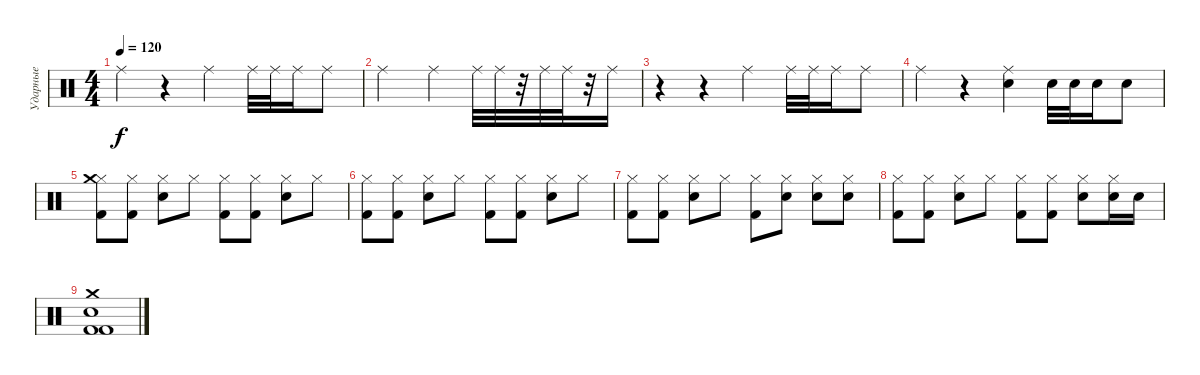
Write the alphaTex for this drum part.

\track ("Ударные" "Ударные") {instrument percussion}
\staff {score}
\articulation defaults
\ts (4 4)
\tempo 120
\clef neutral
\ks c "Ride (middle)".4{dy f}
r.4 "Ride (middle)".4 "Ride (middle)".32 "Ride (middle)".32 "Ride (middle)".16 "Ride (middle)".8 |
"Ride (middle)".2 "Ride (middle)".4 "Ride (middle)".32 "Ride (middle)".32 r.32 "Ride (middle)".32 "Ride (middle)".32 r.32 "Ride (middle)".16 |
r.4 r.4 "Ride (middle)".4 "Ride (middle)".32 "Ride (middle)".32 "Ride (middle)".16 "Ride (middle)".8 |
"Ride (middle)".4 r.4 ("Ride (middle)" "Electric Snare (hit)").4 "Electric Snare (hit)".32 "Electric Snare (hit)".32 "Electric Snare (hit)".16 "Electric Snare (hit)".8 |
("Hi-Hat (closed)" "Crash medium (hit)" "Kick (hit) 2").8 ("Hi-Hat (closed)" "Kick (hit) 2").8 ("Hi-Hat (closed)" "Electric Snare (hit)").8 "Hi-Hat (closed)".8 ("Hi-Hat (closed)" "Kick (hit) 2").8 ("Hi-Hat (closed)" "Kick (hit) 2").8 ("Hi-Hat (closed)" "Electric Snare (hit)").8 "Hi-Hat (closed)".8 |
("Hi-Hat (closed)" "Kick (hit) 2").8 ("Hi-Hat (closed)" "Kick (hit) 2").8 ("Hi-Hat (closed)" "Electric Snare (hit)").8 "Hi-Hat (closed)".8 ("Hi-Hat (closed)" "Kick (hit) 2").8 ("Hi-Hat (closed)" "Kick (hit) 2").8 ("Hi-Hat (closed)" "Electric Snare (hit)").8 "Hi-Hat (closed)".8 |
("Hi-Hat (closed)" "Kick (hit) 2").8 ("Hi-Hat (closed)" "Kick (hit) 2").8 ("Hi-Hat (closed)" "Electric Snare (hit)").8 "Hi-Hat (closed)".8 ("Hi-Hat (closed)" "Kick (hit) 2").8 ("Hi-Hat (closed)" "Electric Snare (hit)").8 ("Hi-Hat (closed)" "Electric Snare (hit)").8 ("Hi-Hat (closed)" "Electric Snare (hit)").8 |
("Hi-Hat (closed)" "Kick (hit) 2").8 ("Hi-Hat (closed)" "Kick (hit) 2").8 ("Hi-Hat (closed)" "Electric Snare (hit)").8 "Hi-Hat (closed)".8 ("Hi-Hat (closed)" "Kick (hit) 2").8 ("Hi-Hat (closed)" "Kick (hit) 2").8 ("Hi-Hat (closed)" "Electric Snare (hit)").8 ("Hi-Hat (closed)" "Electric Snare (hit)").16 "Electric Snare (hit)".16 |
("Crash medium (hit)" "Kick (hit) 2" "Electric Snare (hit)" "Kick (hit) 2").1
